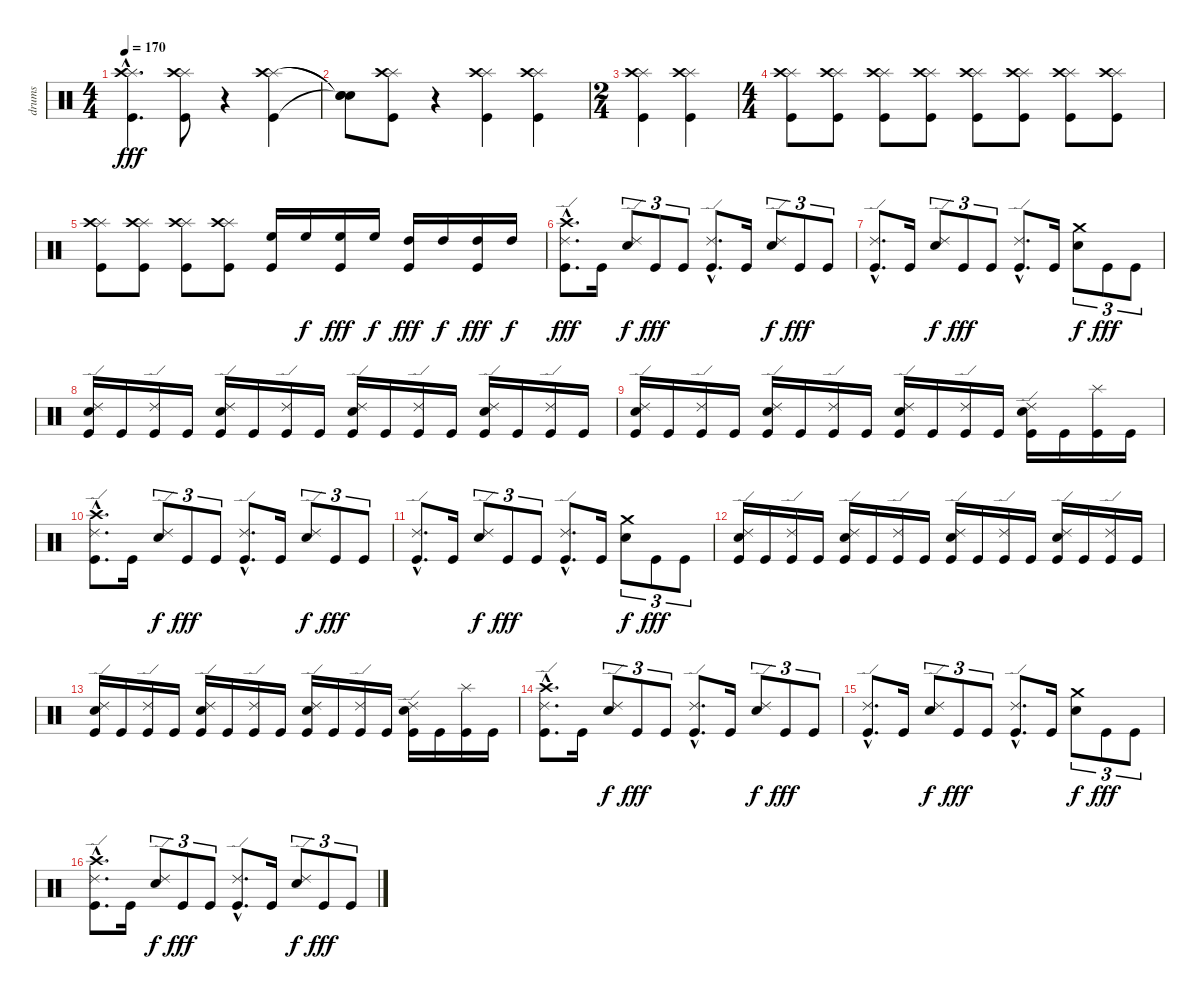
\track ("drums" "drums") {instrument percussion}
\staff {score}
\articulation defaults
\ts (4 4)
\tempo 170
\clef neutral
\ks c
("Splash (hit)"{hac} "Crash high (hit)"{hac} "Kick (hit)"{hac}).4{d dy fff} ("Splash (hit)" "Crash high (hit)" "Kick (hit)").8 r.4 ("Splash (hit)" "Crash high (hit)" "Kick (hit)").4 |
("Snare (hit)"{t} "Snare (hit)"{t} "Snare (hit)"{t}).8 ("Splash (hit)" "Crash high (hit)" "Kick (hit)").8 r.4 ("Splash (hit)" "Crash high (hit)" "Kick (hit)").4 ("Splash (hit)" "Crash high (hit)" "Kick (hit)").4 |
\ts (2 4)
("Splash (hit)" "Crash high (hit)" "Kick (hit)").4 ("Splash (hit)" "Crash high (hit)" "Kick (hit)").4 |
\ts (4 4)
("Splash (hit)" "Crash high (hit)" "Kick (hit)").8 ("Splash (hit)" "Crash high (hit)" "Kick (hit)").8 ("Splash (hit)" "Crash high (hit)" "Kick (hit)").8 ("Splash (hit)" "Crash high (hit)" "Kick (hit)").8 ("Splash (hit)" "Crash high (hit)" "Kick (hit)").8 ("Splash (hit)" "Crash high (hit)" "Kick (hit)").8 ("Splash (hit)" "Crash high (hit)" "Kick (hit)").8 ("Splash (hit)" "Crash high (hit)" "Kick (hit)").8 |
("Splash (hit)" "Crash high (hit)" "Kick (hit)").8 ("Splash (hit)" "Crash high (hit)" "Kick (hit)").8 ("Splash (hit)" "Crash high (hit)" "Kick (hit)").8 ("Splash (hit)" "Crash high (hit)" "Kick (hit)").8 ("High Floor Tom (hit)" "Kick (hit)").16 "High Floor Tom (hit)".16{dy f} ("High Floor Tom (hit)" "Kick (hit)").16{dy fff} "High Floor Tom (hit)".16{dy f} ("High Tom (hit)" "Kick (hit)").16{dy fff} "High Tom (hit)".16{dy f} ("High Tom (hit)" "Kick (hit)").16{dy fff} "High Tom (hit)".16{dy f} |
("Crash high (hit)"{hac} "Ride (edge) 2"{hac} "Kick (hit)"{hac}).8{d dy fff} "Kick (hit)".16 ("Ride (edge) 2" "Snare (hit) 2").8{tu (3 2) dy f} "Kick (hit)".8{tu (3 2) dy fff} "Kick (hit)".8{tu (3 2)} ("Ride (edge) 2"{hac} "Kick (hit)"{hac}).8{d} "Kick (hit)".16 ("Ride (edge) 2" "Snare (hit) 2").8{tu (3 2) dy f} "Kick (hit)".8{tu (3 2) dy fff} "Kick (hit)".8{tu (3 2)} |
("Ride (edge) 2"{hac} "Kick (hit)"{hac}).8{d} "Kick (hit)".16 ("Ride (edge) 2" "Snare (hit) 2").8{tu (3 2) dy f} "Kick (hit)".8{tu (3 2) dy fff} "Kick (hit)".8{tu (3 2)} ("Ride (edge) 2"{hac} "Kick (hit)"{hac}).8{d} "Kick (hit)".16 ("Crash medium (hit)" "Snare (hit) 2").8{tu (3 2) dy f} "Kick (hit)".8{tu (3 2) dy fff} "Kick (hit)".8{tu (3 2)} |
("Ride (edge) 2" "Snare (hit) 2" "Kick (hit)").16 "Kick (hit)".16 ("Ride (edge) 2" "Kick (hit)").16 "Kick (hit)".16 ("Ride (edge) 2" "Snare (hit) 2" "Kick (hit)").16 "Kick (hit)".16 ("Ride (edge) 2" "Kick (hit)").16 "Kick (hit)".16 ("Ride (edge) 2" "Snare (hit) 2" "Kick (hit)").16 "Kick (hit)".16 ("Ride (edge) 2" "Kick (hit)").16 "Kick (hit)".16 ("Ride (edge) 2" "Snare (hit) 2" "Kick (hit)").16 "Kick (hit)".16 ("Ride (edge) 2" "Kick (hit)").16 "Kick (hit)".16 |
("Ride (edge) 2" "Snare (hit) 2" "Kick (hit)").16 "Kick (hit)".16 ("Ride (edge) 2" "Kick (hit)").16 "Kick (hit)".16 ("Ride (edge) 2" "Snare (hit) 2" "Kick (hit)").16 "Kick (hit)".16 ("Ride (edge) 2" "Kick (hit)").16 "Kick (hit)".16 ("Ride (edge) 2" "Snare (hit) 2" "Kick (hit)").16 "Kick (hit)".16 ("Ride (edge) 2" "Kick (hit)").16 "Kick (hit)".16 ("Ride (edge) 2" "Snare (hit) 2" "Kick (hit)").16 "Kick (hit)".16 ("Splash (hit)" "Kick (hit)").16 "Kick (hit)".16 |
("Crash high (hit)"{hac} "Ride (edge) 2"{hac} "Kick (hit)"{hac}).8{d} "Kick (hit)".16 ("Ride (edge) 2" "Snare (hit) 2").8{tu (3 2) dy f} "Kick (hit)".8{tu (3 2) dy fff} "Kick (hit)".8{tu (3 2)} ("Ride (edge) 2"{hac} "Kick (hit)"{hac}).8{d} "Kick (hit)".16 ("Ride (edge) 2" "Snare (hit) 2").8{tu (3 2) dy f} "Kick (hit)".8{tu (3 2) dy fff} "Kick (hit)".8{tu (3 2)} |
("Ride (edge) 2"{hac} "Kick (hit)"{hac}).8{d} "Kick (hit)".16 ("Ride (edge) 2" "Snare (hit) 2").8{tu (3 2) dy f} "Kick (hit)".8{tu (3 2) dy fff} "Kick (hit)".8{tu (3 2)} ("Ride (edge) 2"{hac} "Kick (hit)"{hac}).8{d} "Kick (hit)".16 ("Crash medium (hit)" "Snare (hit) 2").8{tu (3 2) dy f} "Kick (hit)".8{tu (3 2) dy fff} "Kick (hit)".8{tu (3 2)} |
("Ride (edge) 2" "Snare (hit) 2" "Kick (hit)").16 "Kick (hit)".16 ("Ride (edge) 2" "Kick (hit)").16 "Kick (hit)".16 ("Ride (edge) 2" "Snare (hit) 2" "Kick (hit)").16 "Kick (hit)".16 ("Ride (edge) 2" "Kick (hit)").16 "Kick (hit)".16 ("Ride (edge) 2" "Snare (hit) 2" "Kick (hit)").16 "Kick (hit)".16 ("Ride (edge) 2" "Kick (hit)").16 "Kick (hit)".16 ("Ride (edge) 2" "Snare (hit) 2" "Kick (hit)").16 "Kick (hit)".16 ("Ride (edge) 2" "Kick (hit)").16 "Kick (hit)".16 |
("Ride (edge) 2" "Snare (hit) 2" "Kick (hit)").16 "Kick (hit)".16 ("Ride (edge) 2" "Kick (hit)").16 "Kick (hit)".16 ("Ride (edge) 2" "Snare (hit) 2" "Kick (hit)").16 "Kick (hit)".16 ("Ride (edge) 2" "Kick (hit)").16 "Kick (hit)".16 ("Ride (edge) 2" "Snare (hit) 2" "Kick (hit)").16 "Kick (hit)".16 ("Ride (edge) 2" "Kick (hit)").16 "Kick (hit)".16 ("Ride (edge) 2" "Snare (hit) 2" "Kick (hit)").16 "Kick (hit)".16 ("Splash (hit)" "Kick (hit)").16 "Kick (hit)".16 |
("Crash high (hit)"{hac} "Ride (edge) 2"{hac} "Kick (hit)"{hac}).8{d} "Kick (hit)".16 ("Ride (edge) 2" "Snare (hit) 2").8{tu (3 2) dy f} "Kick (hit)".8{tu (3 2) dy fff} "Kick (hit)".8{tu (3 2)} ("Ride (edge) 2"{hac} "Kick (hit)"{hac}).8{d} "Kick (hit)".16 ("Ride (edge) 2" "Snare (hit) 2").8{tu (3 2) dy f} "Kick (hit)".8{tu (3 2) dy fff} "Kick (hit)".8{tu (3 2)} |
("Ride (edge) 2"{hac} "Kick (hit)"{hac}).8{d} "Kick (hit)".16 ("Ride (edge) 2" "Snare (hit) 2").8{tu (3 2) dy f} "Kick (hit)".8{tu (3 2) dy fff} "Kick (hit)".8{tu (3 2)} ("Ride (edge) 2"{hac} "Kick (hit)"{hac}).8{d} "Kick (hit)".16 ("Crash medium (hit)" "Snare (hit) 2").8{tu (3 2) dy f} "Kick (hit)".8{tu (3 2) dy fff} "Kick (hit)".8{tu (3 2)} |
("Crash high (hit)"{hac} "Ride (edge) 2"{hac} "Kick (hit)"{hac}).8{d} "Kick (hit)".16 ("Ride (edge) 2" "Snare (hit) 2").8{tu (3 2) dy f} "Kick (hit)".8{tu (3 2) dy fff} "Kick (hit)".8{tu (3 2)} ("Ride (edge) 2"{hac} "Kick (hit)"{hac}).8{d} "Kick (hit)".16 ("Ride (edge) 2" "Snare (hit) 2").8{tu (3 2) dy f} "Kick (hit)".8{tu (3 2) dy fff} "Kick (hit)".8{tu (3 2)}
